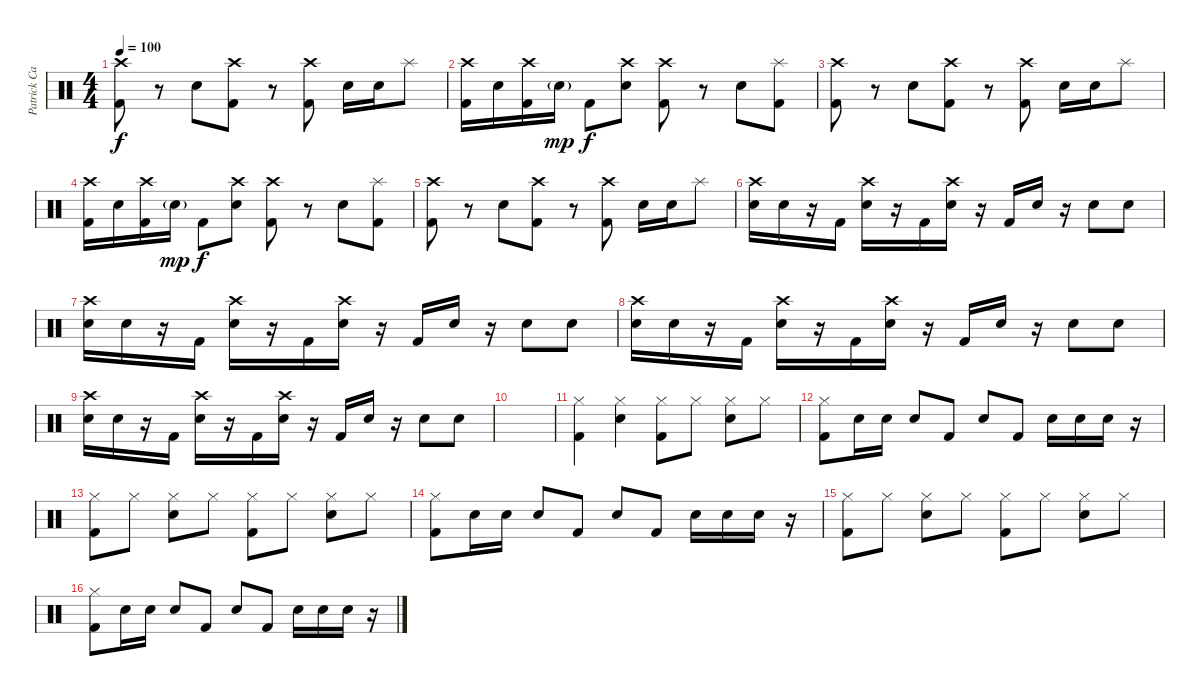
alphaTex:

\track ("Patrick Carney" "Patrick Ca") {instrument percussion}
\staff {score}
\articulation defaults
\ts (4 4)
\tempo 100
\clef neutral
\ks c
("Crash high (hit)" "Kick (hit) 2").8{dy f} r.8 "Snare (hit) 2".8 ("Crash high (hit)" "Kick (hit) 2").8 r.8 ("Crash high (hit)" "Kick (hit) 2").8 "Snare (hit) 2".16 "Snare (hit) 2".16 "Splash (hit)".8 |
("Crash high (hit)" "Kick (hit) 2").16 "Snare (hit) 2".16 ("Crash high (hit)" "Kick (hit) 2").16 "Snare (hit) 2"{g}.16{dy mp} "Kick (hit) 2".8{dy f} ("Crash high (hit)" "Snare (hit) 2").8 ("Crash high (hit)" "Kick (hit) 2").8 r.8 "Snare (hit) 2".8 ("Splash (hit)" "Kick (hit) 2").8 |
("Crash high (hit)" "Kick (hit) 2").8 r.8 "Snare (hit) 2".8 ("Crash high (hit)" "Kick (hit) 2").8 r.8 ("Crash high (hit)" "Kick (hit) 2").8 "Snare (hit) 2".16 "Snare (hit) 2".16 "Splash (hit)".8 |
("Crash high (hit)" "Kick (hit) 2").16 "Snare (hit) 2".16 ("Crash high (hit)" "Kick (hit) 2").16 "Snare (hit) 2"{g}.16{dy mp} "Kick (hit) 2".8{dy f} ("Crash high (hit)" "Snare (hit) 2").8 ("Crash high (hit)" "Kick (hit) 2").8 r.8 "Snare (hit) 2".8 ("Splash (hit)" "Kick (hit) 2").8 |
("Crash high (hit)" "Kick (hit) 2").8 r.8 "Snare (hit) 2".8 ("Crash high (hit)" "Kick (hit) 2").8 r.8 ("Crash high (hit)" "Kick (hit) 2").8 "Snare (hit) 2".16 "Snare (hit) 2".16 "Splash (hit)".8 |
("Crash high (hit)" "Snare (hit) 2").16 "Snare (hit) 2".16 r.16 "Kick (hit) 2".16 ("Crash high (hit)" "Snare (hit) 2").16 r.16 "Kick (hit) 2".16 ("Crash high (hit)" "Snare (hit) 2").16 r.16 "Kick (hit) 2".16 "Snare (hit) 2".16 r.16 "Snare (hit) 2".8 "Snare (hit) 2".8 |
("Crash high (hit)" "Snare (hit) 2").16 "Snare (hit) 2".16 r.16 "Kick (hit) 2".16 ("Crash high (hit)" "Snare (hit) 2").16 r.16 "Kick (hit) 2".16 ("Crash high (hit)" "Snare (hit) 2").16 r.16 "Kick (hit) 2".16 "Snare (hit) 2".16 r.16 "Snare (hit) 2".8 "Snare (hit) 2".8 |
("Crash high (hit)" "Snare (hit) 2").16 "Snare (hit) 2".16 r.16 "Kick (hit) 2".16 ("Crash high (hit)" "Snare (hit) 2").16 r.16 "Kick (hit) 2".16 ("Crash high (hit)" "Snare (hit) 2").16 r.16 "Kick (hit) 2".16 "Snare (hit) 2".16 r.16 "Snare (hit) 2".8 "Snare (hit) 2".8 |
("Crash high (hit)" "Snare (hit) 2").16 "Snare (hit) 2".16 r.16 "Kick (hit) 2".16 ("Crash high (hit)" "Snare (hit) 2").16 r.16 "Kick (hit) 2".16 ("Crash high (hit)" "Snare (hit) 2").16 r.16 "Kick (hit) 2".16 "Snare (hit) 2".16 r.16 "Snare (hit) 2".8 "Snare (hit) 2".8 |
|
("Hi-Hat (closed)" "Kick (hit) 2").4 ("Hi-Hat (closed)" "Snare (hit) 2").4 ("Hi-Hat (closed)" "Kick (hit) 2").8 "Hi-Hat (closed)".8 ("Hi-Hat (closed)" "Snare (hit) 2").8 "Hi-Hat (closed)".8 |
("Hi-Hat (closed)" "Kick (hit) 2").8 "Snare (hit) 2".16 "Snare (hit) 2".16 "Snare (hit) 2".8 "Kick (hit) 2".8 "Snare (hit) 2".8 "Kick (hit) 2".8 "Snare (hit) 2".16 "Snare (hit) 2".16 "Snare (hit) 2".16 r.16 |
("Hi-Hat (closed)" "Kick (hit) 2").8 "Hi-Hat (closed)".8 ("Hi-Hat (closed)" "Snare (hit) 2").8 "Hi-Hat (closed)".8 ("Hi-Hat (closed)" "Kick (hit) 2").8 "Hi-Hat (closed)".8 ("Hi-Hat (closed)" "Snare (hit) 2").8 "Hi-Hat (closed)".8 |
("Hi-Hat (closed)" "Kick (hit) 2").8 "Snare (hit) 2".16 "Snare (hit) 2".16 "Snare (hit) 2".8 "Kick (hit) 2".8 "Snare (hit) 2".8 "Kick (hit) 2".8 "Snare (hit) 2".16 "Snare (hit) 2".16 "Snare (hit) 2".16 r.16 |
("Hi-Hat (closed)" "Kick (hit) 2").8 "Hi-Hat (closed)".8 ("Hi-Hat (closed)" "Snare (hit) 2").8 "Hi-Hat (closed)".8 ("Hi-Hat (closed)" "Kick (hit) 2").8 "Hi-Hat (closed)".8 ("Hi-Hat (closed)" "Snare (hit) 2").8 "Hi-Hat (closed)".8 |
("Hi-Hat (closed)" "Kick (hit) 2").8 "Snare (hit) 2".16 "Snare (hit) 2".16 "Snare (hit) 2".8 "Kick (hit) 2".8 "Snare (hit) 2".8 "Kick (hit) 2".8 "Snare (hit) 2".16 "Snare (hit) 2".16 "Snare (hit) 2".16 r.16
